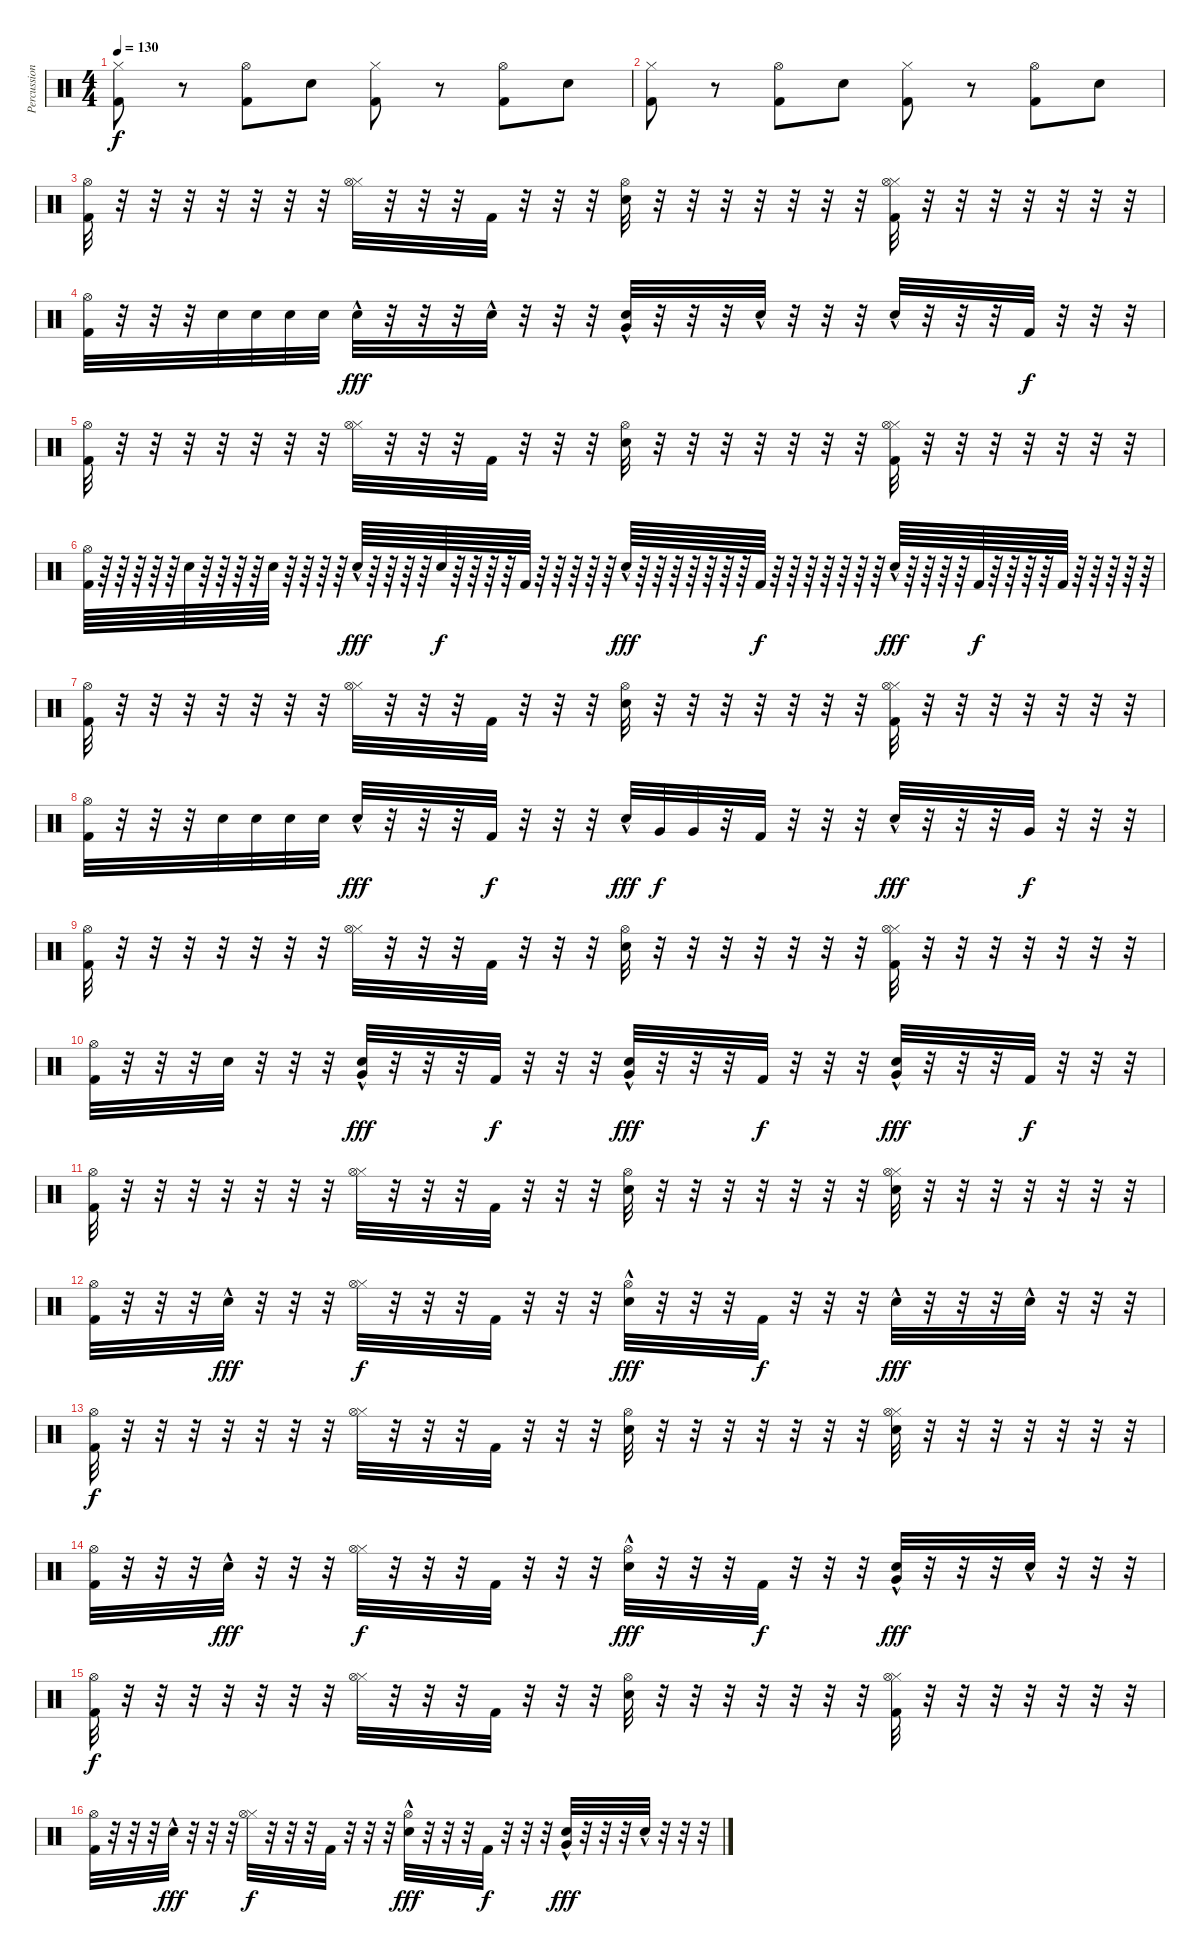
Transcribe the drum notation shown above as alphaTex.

\track ("Percussion" "Percussion") {instrument percussion}
\staff {score}
\articulation defaults
\ts (4 4)
\tempo 130
\clef neutral
\ks c
("Kick (hit) 2" "Hi-Hat (closed)").8{dy f} r.8 ("Kick (hit) 2" "Hi-Hat (open)").8 "Electric Snare (hit)".8 ("Kick (hit) 2" "Hi-Hat (closed)").8 r.8 ("Kick (hit) 2" "Hi-Hat (open)").8 "Electric Snare (hit)".8 |
("Kick (hit) 2" "Hi-Hat (closed)").8 r.8 ("Kick (hit) 2" "Hi-Hat (open)").8 "Electric Snare (hit)".8 ("Kick (hit) 2" "Hi-Hat (closed)").8 r.8 ("Kick (hit) 2" "Hi-Hat (open)").8 "Electric Snare (hit)".8 |
("Kick (hit) 2" "Hi-Hat (open)").32 r.32 r.32 r.32 r.32 r.32 r.32 r.32 ("Hi-Hat (closed)" "Hi-Hat (open)").32 r.32 r.32 r.32 "Kick (hit) 2".32 r.32 r.32 r.32 ("Electric Snare (hit)" "Hi-Hat (open)").32 r.32 r.32 r.32 r.32 r.32 r.32 r.32 ("Kick (hit) 2" "Hi-Hat (closed)" "Hi-Hat (open)").32 r.32 r.32 r.32 r.32 r.32 r.32 r.32 |
("Kick (hit) 2" "Hi-Hat (open)").32 r.32 r.32 r.32 "Electric Snare (hit)".32 "Electric Snare (hit)".32 "Electric Snare (hit)".32 "Electric Snare (hit)".32 "Electric Snare (hit)"{hac}.32{dy fff} r.32 r.32 r.32 "Electric Snare (hit)"{hac}.32 r.32 r.32 r.32 ("Electric Snare (hit)"{hac} "Very Low Tom (hit)").32 r.32 r.32 r.32 "Electric Snare (hit)"{hac}.32 r.32 r.32 r.32 "Electric Snare (hit)"{hac}.32 r.32 r.32 r.32 "Kick (hit) 2".32{dy f} r.32 r.32 r.32 |
("Kick (hit) 2" "Hi-Hat (open)").32 r.32 r.32 r.32 r.32 r.32 r.32 r.32 ("Hi-Hat (closed)" "Hi-Hat (open)").32 r.32 r.32 r.32 "Kick (hit) 2".32 r.32 r.32 r.32 ("Electric Snare (hit)" "Hi-Hat (open)").32 r.32 r.32 r.32 r.32 r.32 r.32 r.32 ("Kick (hit) 2" "Hi-Hat (closed)" "Hi-Hat (open)").32 r.32 r.32 r.32 r.32 r.32 r.32 r.32 |
("Kick (hit) 2" "Hi-Hat (open)").64 r.64 r.64 r.64 r.64 r.64 "Electric Snare (hit)".64 r.64 r.64 r.64 r.64 "Electric Snare (hit)".64 r.64 r.64 r.64 r.64 "Electric Snare (hit)"{hac}.64{dy fff} r.64 r.64 r.64 r.64 "Electric Snare (hit)".64{dy f} r.64 r.64 r.64 r.64 "Kick (hit) 2".64 r.64 r.64 r.64 r.64 r.64 "Electric Snare (hit)"{hac}.64{dy fff} r.64 r.64 r.64 r.64 r.64 r.64 r.64 "Kick (hit) 2".64{dy f} r.64 r.64 r.64 r.64 r.64 r.64 r.64 "Electric Snare (hit)"{hac}.64{dy fff} r.64 r.64 r.64 r.64 "Kick (hit) 2".64{dy f} r.64 r.64 r.64 r.64 "Kick (hit) 2".64 r.64 r.64 r.64 r.64 r.64 |
("Kick (hit) 2" "Hi-Hat (open)").32 r.32 r.32 r.32 r.32 r.32 r.32 r.32 ("Hi-Hat (closed)" "Hi-Hat (open)").32 r.32 r.32 r.32 "Kick (hit) 2".32 r.32 r.32 r.32 ("Electric Snare (hit)" "Hi-Hat (open)").32 r.32 r.32 r.32 r.32 r.32 r.32 r.32 ("Kick (hit) 2" "Hi-Hat (closed)" "Hi-Hat (open)").32 r.32 r.32 r.32 r.32 r.32 r.32 r.32 |
("Kick (hit) 2" "Hi-Hat (open)").32 r.32 r.32 r.32 "Electric Snare (hit)".32 "Electric Snare (hit)".32 "Electric Snare (hit)".32 "Electric Snare (hit)".32 "Electric Snare (hit)"{hac}.32{dy fff} r.32 r.32 r.32 "Kick (hit) 2".32{dy f} r.32 r.32 r.32 "Electric Snare (hit)"{hac}.32{dy fff} "Very Low Tom (hit)".32{dy f} "Very Low Tom (hit)".32 r.32 "Kick (hit) 2".32 r.32 r.32 r.32 "Electric Snare (hit)"{hac}.32{dy fff} r.32 r.32 r.32 "Very Low Tom (hit)".32{dy f} r.32 r.32 r.32 |
("Kick (hit) 2" "Hi-Hat (open)").32 r.32 r.32 r.32 r.32 r.32 r.32 r.32 ("Hi-Hat (closed)" "Hi-Hat (open)").32 r.32 r.32 r.32 "Kick (hit) 2".32 r.32 r.32 r.32 ("Electric Snare (hit)" "Hi-Hat (open)").32 r.32 r.32 r.32 r.32 r.32 r.32 r.32 ("Kick (hit) 2" "Hi-Hat (closed)" "Hi-Hat (open)").32 r.32 r.32 r.32 r.32 r.32 r.32 r.32 |
("Kick (hit) 2" "Hi-Hat (open)").32 r.32 r.32 r.32 "Electric Snare (hit)".32 r.32 r.32 r.32 ("Electric Snare (hit)"{hac} "Very Low Tom (hit)").32{dy fff} r.32 r.32 r.32 "Kick (hit) 2".32{dy f} r.32 r.32 r.32 ("Electric Snare (hit)"{hac} "Very Low Tom (hit)").32{dy fff} r.32 r.32 r.32 "Kick (hit) 2".32{dy f} r.32 r.32 r.32 ("Electric Snare (hit)"{hac} "Very Low Tom (hit)").32{dy fff} r.32 r.32 r.32 "Kick (hit) 2".32{dy f} r.32 r.32 r.32 |
("Kick (hit) 2" "Hi-Hat (open)").32 r.32 r.32 r.32 r.32 r.32 r.32 r.32 ("Hi-Hat (closed)" "Hi-Hat (open)").32 r.32 r.32 r.32 "Kick (hit) 2".32 r.32 r.32 r.32 ("Electric Snare (hit)" "Hi-Hat (open)").32 r.32 r.32 r.32 r.32 r.32 r.32 r.32 ("Electric Snare (hit)" "Hi-Hat (closed)" "Hi-Hat (open)").32 r.32 r.32 r.32 r.32 r.32 r.32 r.32 |
("Kick (hit) 2" "Hi-Hat (open)").32 r.32 r.32 r.32 "Electric Snare (hit)"{hac}.32{dy fff} r.32 r.32 r.32 ("Hi-Hat (closed)" "Hi-Hat (open)").32{dy f} r.32 r.32 r.32 "Kick (hit) 2".32 r.32 r.32 r.32 ("Electric Snare (hit)"{hac} "Hi-Hat (open)").32{dy fff} r.32 r.32 r.32 "Kick (hit) 2".32{dy f} r.32 r.32 r.32 "Electric Snare (hit)"{hac}.32{dy fff} r.32 r.32 r.32 "Electric Snare (hit)"{hac}.32 r.32 r.32 r.32 |
("Kick (hit) 2" "Hi-Hat (open)").32{dy f} r.32 r.32 r.32 r.32 r.32 r.32 r.32 ("Hi-Hat (closed)" "Hi-Hat (open)").32 r.32 r.32 r.32 "Kick (hit) 2".32 r.32 r.32 r.32 ("Electric Snare (hit)" "Hi-Hat (open)").32 r.32 r.32 r.32 r.32 r.32 r.32 r.32 ("Electric Snare (hit)" "Hi-Hat (closed)" "Hi-Hat (open)").32 r.32 r.32 r.32 r.32 r.32 r.32 r.32 |
("Kick (hit) 2" "Hi-Hat (open)").32 r.32 r.32 r.32 "Electric Snare (hit)"{hac}.32{dy fff} r.32 r.32 r.32 ("Hi-Hat (closed)" "Hi-Hat (open)").32{dy f} r.32 r.32 r.32 "Kick (hit) 2".32 r.32 r.32 r.32 ("Electric Snare (hit)"{hac} "Hi-Hat (open)").32{dy fff} r.32 r.32 r.32 "Kick (hit) 2".32{dy f} r.32 r.32 r.32 ("Electric Snare (hit)"{hac} "Very Low Tom (hit)").32{dy fff} r.32 r.32 r.32 "Electric Snare (hit)"{hac}.32 r.32 r.32 r.32 |
("Kick (hit) 2" "Hi-Hat (open)").32{dy f} r.32 r.32 r.32 r.32 r.32 r.32 r.32 ("Hi-Hat (closed)" "Hi-Hat (open)").32 r.32 r.32 r.32 "Kick (hit) 2".32 r.32 r.32 r.32 ("Electric Snare (hit)" "Hi-Hat (open)").32 r.32 r.32 r.32 r.32 r.32 r.32 r.32 ("Kick (hit) 2" "Hi-Hat (closed)" "Hi-Hat (open)").32 r.32 r.32 r.32 r.32 r.32 r.32 r.32 |
("Kick (hit) 2" "Hi-Hat (open)").32 r.32 r.32 r.32 "Electric Snare (hit)"{hac}.32{dy fff} r.32 r.32 r.32 ("Hi-Hat (closed)" "Hi-Hat (open)").32{dy f} r.32 r.32 r.32 "Kick (hit) 2".32 r.32 r.32 r.32 ("Electric Snare (hit)"{hac} "Hi-Hat (open)").32{dy fff} r.32 r.32 r.32 "Kick (hit) 2".32{dy f} r.32 r.32 r.32 ("Electric Snare (hit)"{hac} "Very Low Tom (hit)").32{dy fff} r.32 r.32 r.32 "Electric Snare (hit)"{hac}.32 r.32 r.32 r.32
